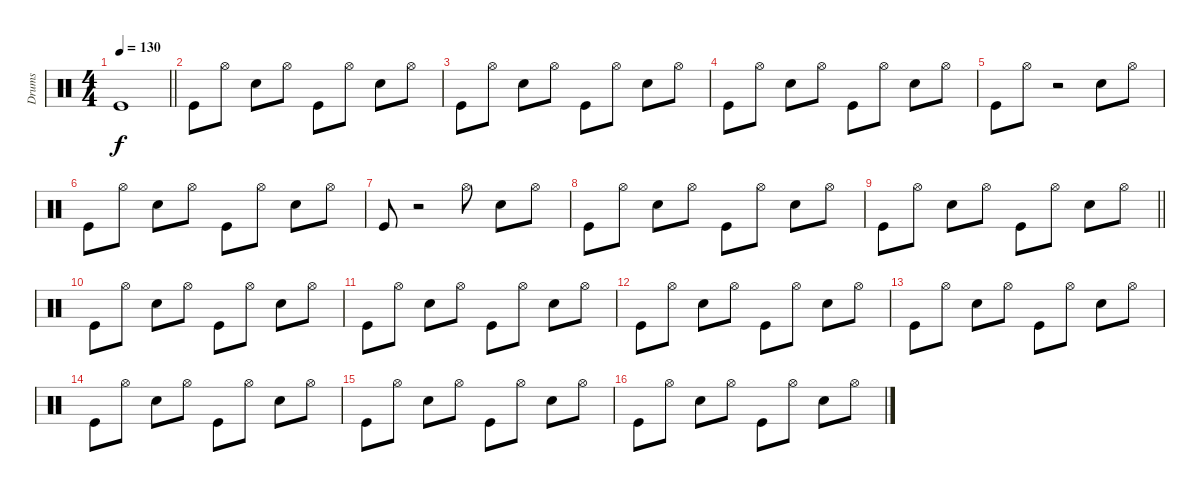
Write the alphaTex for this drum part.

\track ("Drums" "Drums") {instrument percussion}
\staff {score}
\articulation defaults
\ts (4 4)
\tempo 130
\clef neutral
\barLineRight lightlight
\ks c "Kick (hit)".1{dy f}
|
"Kick (hit)".8 "Hi-Hat (open)".8 "Snare (hit) 2".8 "Hi-Hat (open)".8 "Kick (hit)".8 "Hi-Hat (open)".8 "Snare (hit) 2".8 "Hi-Hat (open)".8 |
"Kick (hit)".8 "Hi-Hat (open)".8 "Snare (hit) 2".8 "Hi-Hat (open)".8 "Kick (hit)".8 "Hi-Hat (open)".8 "Snare (hit) 2".8 "Hi-Hat (open)".8 |
"Kick (hit)".8 "Hi-Hat (open)".8 "Snare (hit) 2".8 "Hi-Hat (open)".8 "Kick (hit)".8 "Hi-Hat (open)".8 "Snare (hit) 2".8 "Hi-Hat (open)".8 |
"Kick (hit)".8 "Hi-Hat (open)".8 r.2 "Snare (hit) 2".8 "Hi-Hat (open)".8 |
"Kick (hit)".8 "Hi-Hat (open)".8 "Snare (hit) 2".8 "Hi-Hat (open)".8 "Kick (hit)".8 "Hi-Hat (open)".8 "Snare (hit) 2".8 "Hi-Hat (open)".8 |
"Kick (hit)".8 r.2 "Hi-Hat (open)".8 "Snare (hit) 2".8 "Hi-Hat (open)".8 |
"Kick (hit)".8 "Hi-Hat (open)".8 "Snare (hit) 2".8 "Hi-Hat (open)".8 "Kick (hit)".8 "Hi-Hat (open)".8 "Snare (hit) 2".8 "Hi-Hat (open)".8 |
\barLineRight lightlight "Kick (hit)".8 "Hi-Hat (open)".8 "Snare (hit) 2".8 "Hi-Hat (open)".8 "Kick (hit)".8 "Hi-Hat (open)".8 "Snare (hit) 2".8 "Hi-Hat (open)".8
|
\section ("" "")
"Kick (hit)".8 "Hi-Hat (open)".8 "Snare (hit) 2".8 "Hi-Hat (open)".8 "Kick (hit)".8 "Hi-Hat (open)".8 "Snare (hit) 2".8 "Hi-Hat (open)".8 |
"Kick (hit)".8 "Hi-Hat (open)".8 "Snare (hit) 2".8 "Hi-Hat (open)".8 "Kick (hit)".8 "Hi-Hat (open)".8 "Snare (hit) 2".8 "Hi-Hat (open)".8 |
"Kick (hit)".8 "Hi-Hat (open)".8 "Snare (hit) 2".8 "Hi-Hat (open)".8 "Kick (hit)".8 "Hi-Hat (open)".8 "Snare (hit) 2".8 "Hi-Hat (open)".8 |
"Kick (hit)".8 "Hi-Hat (open)".8 "Snare (hit) 2".8 "Hi-Hat (open)".8 "Kick (hit)".8 "Hi-Hat (open)".8 "Snare (hit) 2".8 "Hi-Hat (open)".8 |
"Kick (hit)".8 "Hi-Hat (open)".8 "Snare (hit) 2".8 "Hi-Hat (open)".8 "Kick (hit)".8 "Hi-Hat (open)".8 "Snare (hit) 2".8 "Hi-Hat (open)".8 |
"Kick (hit)".8 "Hi-Hat (open)".8 "Snare (hit) 2".8 "Hi-Hat (open)".8 "Kick (hit)".8 "Hi-Hat (open)".8 "Snare (hit) 2".8 "Hi-Hat (open)".8 |
"Kick (hit)".8 "Hi-Hat (open)".8 "Snare (hit) 2".8 "Hi-Hat (open)".8 "Kick (hit)".8 "Hi-Hat (open)".8 "Snare (hit) 2".8 "Hi-Hat (open)".8
